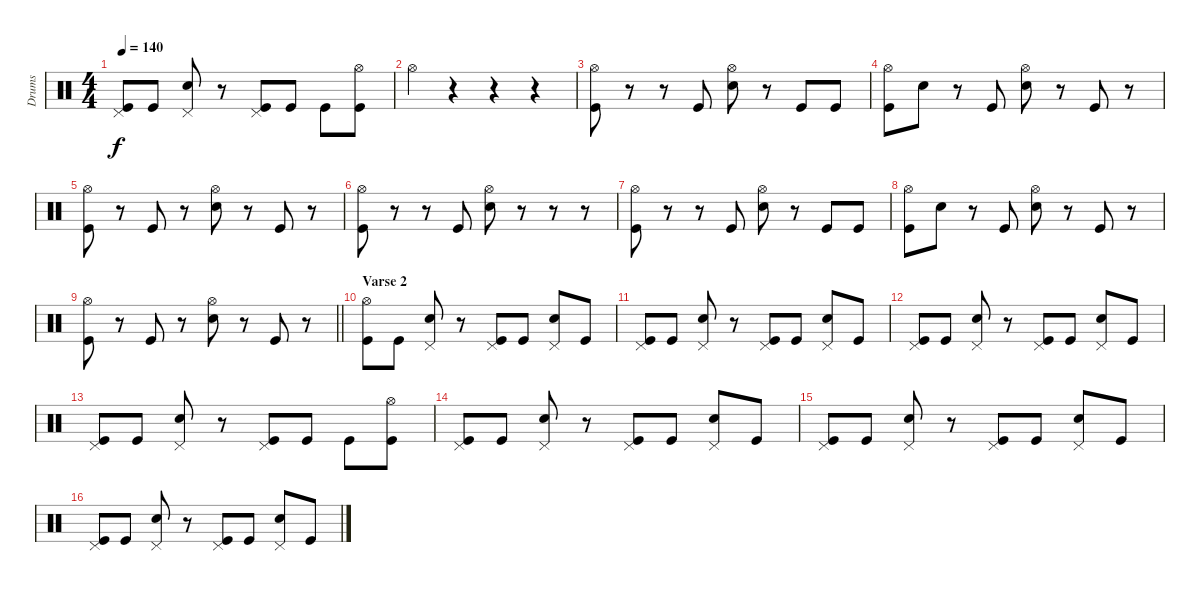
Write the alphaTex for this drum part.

\track ("Drums" "Drums") {instrument percussion}
\staff {score}
\articulation defaults
\ts (4 4)
\tempo 140
\clef neutral
\ks c
("Pedal Hi-Hat (hit)" "Kick (hit)").8{dy f} "Kick (hit)".8 ("Pedal Hi-Hat (hit)" "Electric Snare (hit)").8 r.8 ("Pedal Hi-Hat (hit)" "Kick (hit)").8 "Kick (hit)".8 "Kick (hit)".8 ("Hi-Hat (open)" "Kick (hit)").8 |
"Hi-Hat (open)".4 r.4 r.4 r.4 |
("Hi-Hat (open)" "Kick (hit)").8 r.8 r.8 "Kick (hit)".8 ("Hi-Hat (open)" "Electric Snare (hit)").8 r.8 "Kick (hit)".8 "Kick (hit)".8 |
("Hi-Hat (open)" "Kick (hit)").8 "Electric Snare (hit)".8 r.8 "Kick (hit)".8 ("Hi-Hat (open)" "Electric Snare (hit)").8 r.8 "Kick (hit)".8 r.8 |
("Hi-Hat (open)" "Kick (hit)").8 r.8 "Kick (hit)".8 r.8 ("Hi-Hat (open)" "Electric Snare (hit)").8 r.8 "Kick (hit)".8 r.8 |
("Hi-Hat (open)" "Kick (hit)").8 r.8 r.8 "Kick (hit)".8 ("Hi-Hat (open)" "Electric Snare (hit)").8 r.8 r.8 r.8 |
("Hi-Hat (open)" "Kick (hit)").8 r.8 r.8 "Kick (hit)".8 ("Hi-Hat (open)" "Electric Snare (hit)").8 r.8 "Kick (hit)".8 "Kick (hit)".8 |
("Hi-Hat (open)" "Kick (hit)").8 "Electric Snare (hit)".8 r.8 "Kick (hit)".8 ("Hi-Hat (open)" "Electric Snare (hit)").8 r.8 "Kick (hit)".8 r.8 |
\barLineRight lightlight
("Hi-Hat (open)" "Kick (hit)").8 r.8 "Kick (hit)".8 r.8 ("Hi-Hat (open)" "Electric Snare (hit)").8 r.8 "Kick (hit)".8 r.8 |
\section ("" "Varse 2")
("Hi-Hat (open)" "Kick (hit)").8 "Kick (hit)".8 ("Pedal Hi-Hat (hit)" "Electric Snare (hit)").8 r.8 ("Pedal Hi-Hat (hit)" "Kick (hit)").8 "Kick (hit)".8 ("Pedal Hi-Hat (hit)" "Electric Snare (hit)").8 "Kick (hit)".8 |
("Pedal Hi-Hat (hit)" "Kick (hit)").8 "Kick (hit)".8 ("Pedal Hi-Hat (hit)" "Electric Snare (hit)").8 r.8 ("Pedal Hi-Hat (hit)" "Kick (hit)").8 "Kick (hit)".8 ("Pedal Hi-Hat (hit)" "Electric Snare (hit)").8 "Kick (hit)".8 |
("Pedal Hi-Hat (hit)" "Kick (hit)").8 "Kick (hit)".8 ("Pedal Hi-Hat (hit)" "Electric Snare (hit)").8 r.8 ("Pedal Hi-Hat (hit)" "Kick (hit)").8 "Kick (hit)".8 ("Pedal Hi-Hat (hit)" "Electric Snare (hit)").8 "Kick (hit)".8 |
("Pedal Hi-Hat (hit)" "Kick (hit)").8 "Kick (hit)".8 ("Pedal Hi-Hat (hit)" "Electric Snare (hit)").8 r.8 ("Pedal Hi-Hat (hit)" "Kick (hit)").8 "Kick (hit)".8 "Kick (hit)".8 ("Hi-Hat (open)" "Kick (hit)").8 |
("Pedal Hi-Hat (hit)" "Kick (hit)").8 "Kick (hit)".8 ("Pedal Hi-Hat (hit)" "Electric Snare (hit)").8 r.8 ("Pedal Hi-Hat (hit)" "Kick (hit)").8 "Kick (hit)".8 ("Pedal Hi-Hat (hit)" "Electric Snare (hit)").8 "Kick (hit)".8 |
("Pedal Hi-Hat (hit)" "Kick (hit)").8 "Kick (hit)".8 ("Pedal Hi-Hat (hit)" "Electric Snare (hit)").8 r.8 ("Pedal Hi-Hat (hit)" "Kick (hit)").8 "Kick (hit)".8 ("Pedal Hi-Hat (hit)" "Electric Snare (hit)").8 "Kick (hit)".8 |
("Pedal Hi-Hat (hit)" "Kick (hit)").8 "Kick (hit)".8 ("Pedal Hi-Hat (hit)" "Electric Snare (hit)").8 r.8 ("Pedal Hi-Hat (hit)" "Kick (hit)").8 "Kick (hit)".8 ("Pedal Hi-Hat (hit)" "Electric Snare (hit)").8 "Kick (hit)".8
